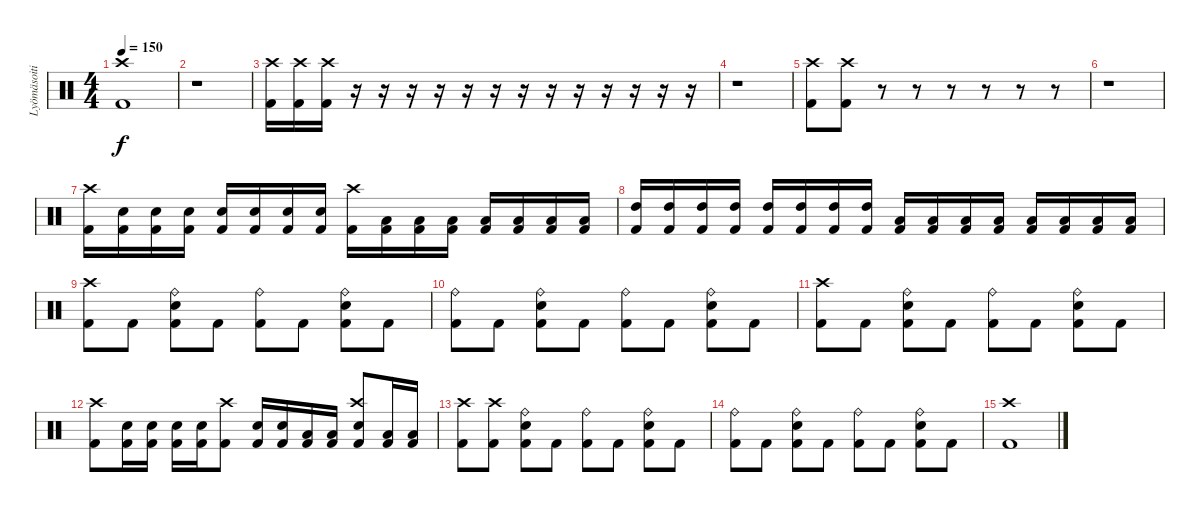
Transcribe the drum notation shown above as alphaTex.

\track ("Lyömäsoitin" "Lyömäsoiti") {instrument percussion}
\staff {score}
\articulation defaults
\ts (4 4)
\tempo 150
\clef neutral
\ks c
("Kick (hit) 2" "Crash high (hit)").1{dy f} |
r.1 |
("Crash high (hit)" "Kick (hit) 2").16 ("Crash high (hit)" "Kick (hit) 2").16 ("Crash high (hit)" "Kick (hit) 2").16 r.16 r.16 r.16 r.16 r.16 r.16 r.16 r.16 r.16 r.16 r.16 r.16 r.16 |
r.1 |
("Kick (hit) 2" "Crash high (hit)").8 ("Kick (hit) 2" "Crash high (hit)").8 r.8 r.8 r.8 r.8 r.8 r.8 |
r.1 |
("Kick (hit) 2" "Crash high (hit)").16 ("Kick (hit) 2" "Electric Snare (hit)").16 ("Kick (hit) 2" "Electric Snare (hit)").16 ("Kick (hit) 2" "Electric Snare (hit)").16 ("Kick (hit) 2" "Electric Snare (hit)").16 ("Kick (hit) 2" "Electric Snare (hit)").16 ("Kick (hit) 2" "Electric Snare (hit)").16 ("Kick (hit) 2" "Electric Snare (hit)").16 ("Kick (hit) 2" "Crash high (hit)").16 ("Kick (hit) 2" "Low Tom (hit)").16 ("Kick (hit) 2" "Low Tom (hit)").16 ("Kick (hit) 2" "Low Tom (hit)").16 ("Kick (hit) 2" "Low Tom (hit)").16 ("Kick (hit) 2" "Low Tom (hit)").16 ("Kick (hit) 2" "Low Tom (hit)").16 ("Kick (hit) 2" "Low Tom (hit)").16 |
("Kick (hit) 2" "High Tom (hit)").16 ("Kick (hit) 2" "High Tom (hit)").16 ("Kick (hit) 2" "High Tom (hit)").16 ("Kick (hit) 2" "High Tom (hit)").16 ("Kick (hit) 2" "High Tom (hit)").16 ("Kick (hit) 2" "High Tom (hit)").16 ("Kick (hit) 2" "High Tom (hit)").16 ("Kick (hit) 2" "High Tom (hit)").16 ("Kick (hit) 2" "Low Tom (hit)").16 ("Kick (hit) 2" "Low Tom (hit)").16 ("Kick (hit) 2" "Low Tom (hit)").16 ("Kick (hit) 2" "Low Tom (hit)").16 ("Kick (hit) 2" "Low Tom (hit)").16 ("Kick (hit) 2" "Low Tom (hit)").16 ("Kick (hit) 2" "Low Tom (hit)").16 ("Kick (hit) 2" "Low Tom (hit)").16 |
("Kick (hit) 2" "Crash high (hit)").8 "Kick (hit) 2".8 ("Kick (hit) 2" "Ride (bell)" "Electric Snare (hit)").8 "Kick (hit) 2".8 ("Kick (hit) 2" "Ride (bell)").8 "Kick (hit) 2".8 ("Kick (hit) 2" "Ride (bell)" "Electric Snare (hit)").8 "Kick (hit) 2".8 |
("Kick (hit) 2" "Ride (bell)").8 "Kick (hit) 2".8 ("Kick (hit) 2" "Ride (bell)" "Electric Snare (hit)").8 "Kick (hit) 2".8 ("Kick (hit) 2" "Ride (bell)").8 "Kick (hit) 2".8 ("Kick (hit) 2" "Ride (bell)" "Electric Snare (hit)").8 "Kick (hit) 2".8 |
("Kick (hit) 2" "Crash high (hit)").8 "Kick (hit) 2".8 ("Kick (hit) 2" "Ride (bell)" "Electric Snare (hit)").8 "Kick (hit) 2".8 ("Kick (hit) 2" "Ride (bell)").8 "Kick (hit) 2".8 ("Kick (hit) 2" "Ride (bell)" "Electric Snare (hit)").8 "Kick (hit) 2".8 |
("Kick (hit) 2" "Crash high (hit)").8 ("Kick (hit) 2" "Electric Snare (hit)").16 ("Kick (hit) 2" "Electric Snare (hit)").16 ("Kick (hit) 2" "Electric Snare (hit)").16 ("Kick (hit) 2" "Electric Snare (hit)").16 ("Kick (hit) 2" "Crash high (hit)").8 ("Kick (hit) 2" "Electric Snare (hit)").16 ("Kick (hit) 2" "Electric Snare (hit)").16 ("Kick (hit) 2" "Low Tom (hit)").16 ("Kick (hit) 2" "Low Tom (hit)").16 ("Kick (hit) 2" "Crash high (hit)" "Electric Snare (hit)").8 ("Kick (hit) 2" "Low Tom (hit)").16 ("Kick (hit) 2" "Low Tom (hit)").16 |
("Kick (hit) 2" "Crash high (hit)").8 ("Kick (hit) 2" "Crash high (hit)").8 ("Kick (hit) 2" "Ride (bell)" "Electric Snare (hit)").8 "Kick (hit) 2".8 ("Kick (hit) 2" "Ride (bell)").8 "Kick (hit) 2".8 ("Kick (hit) 2" "Ride (bell)" "Electric Snare (hit)").8 "Kick (hit) 2".8 |
("Kick (hit) 2" "Ride (bell)").8 "Kick (hit) 2".8 ("Kick (hit) 2" "Ride (bell)" "Electric Snare (hit)").8 "Kick (hit) 2".8 ("Kick (hit) 2" "Ride (bell)").8 "Kick (hit) 2".8 ("Kick (hit) 2" "Ride (bell)" "Electric Snare (hit)").8 "Kick (hit) 2".8 |
("Kick (hit) 2" "Crash high (hit)").1
